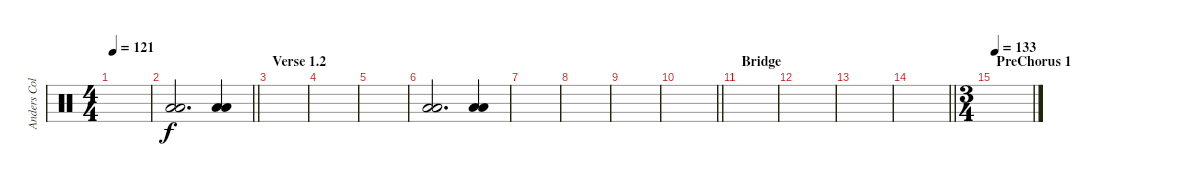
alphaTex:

\track ("Anders Colsefni" "Anders Col") {instrument percussion}
\staff {score}
\articulation defaults
\ts (4 4)
\tempo 121
\clef neutral
\ks c
|
\barLineRight lightlight
("Low Floor Tom (hit)" "Low Floor Tom (hit)").2{d} ("Low Floor Tom (hit)" "Low Floor Tom (hit)").4 |
\section ("" "Verse 1.2")
|
|
|
("Low Floor Tom (hit)" "Low Floor Tom (hit)").2{d} ("Low Floor Tom (hit)" "Low Floor Tom (hit)").4 |
|
|
|
\barLineRight lightlight
|
\section ("" "Bridge")
|
|
|
\barLineRight lightlight
|
\ts (3 4)
\section ("" "PreChorus 1")
\tempo 133
